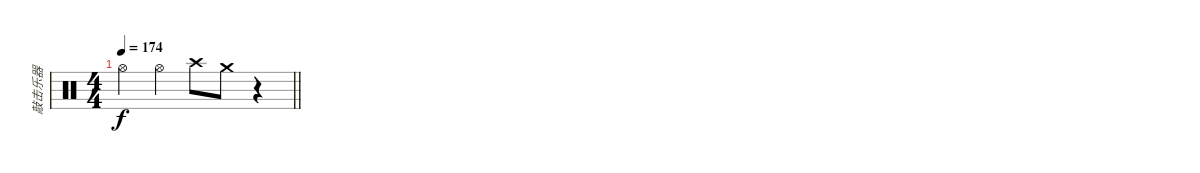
\track ("敲击乐器" "敲击乐器") {instrument percussion}
\staff {score}
\articulation defaults
\ts (4 4)
\tempo 174
\clef neutral
\barLineRight lightlight
\ks c "Hi-Hat (open)".4{dy f} "Hi-Hat (open)".4 "Crash high (hit)".8 "Crash medium (hit)".8
r.4
